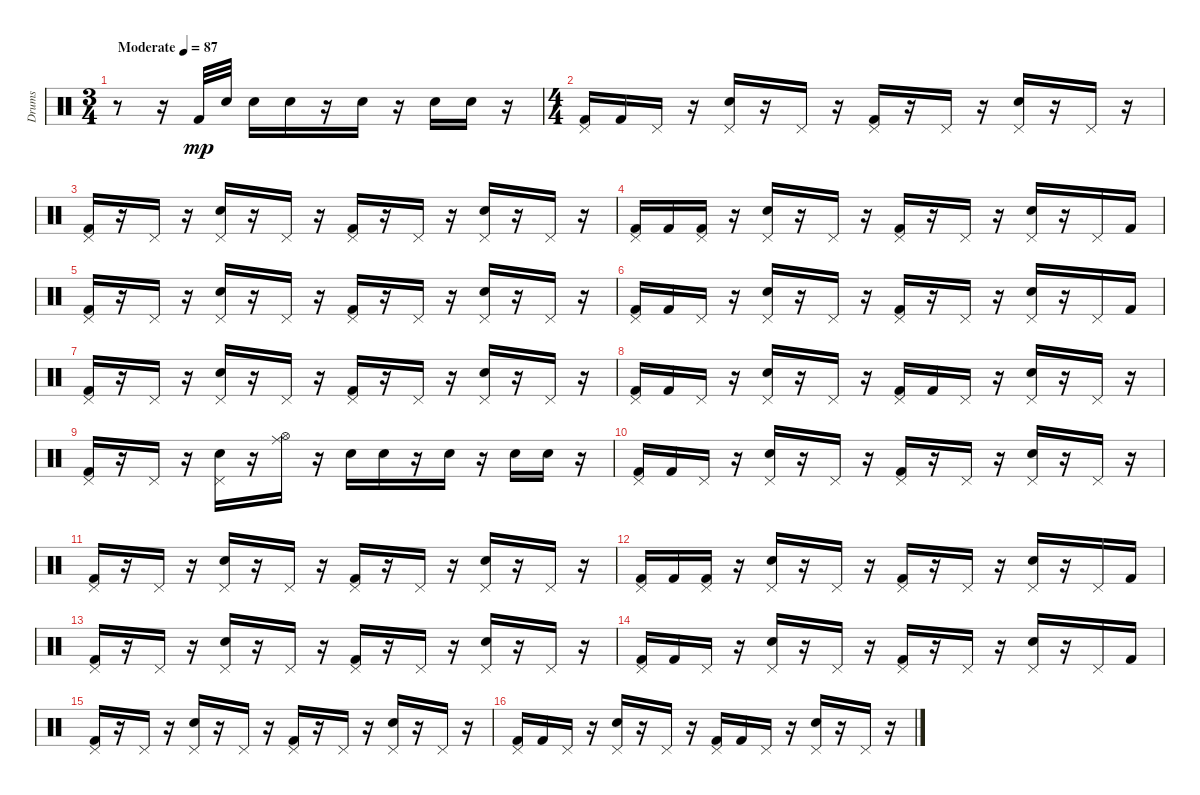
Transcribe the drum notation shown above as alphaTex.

\track ("Drums" "Drums") {instrument percussion}
\staff {score}
\articulation defaults
\ts (3 4)
\tempo (87 "Moderate")
\clef neutral
\ks c
r.8{dy mp} r.16 "Kick (hit) 2".32 "Electric Snare (hit)".32 "Electric Snare (hit)".16 "Electric Snare (hit)".16 r.16 "Electric Snare (hit)".16 r.16 "Electric Snare (hit)".16 "Electric Snare (hit)".16 r.16 |
\ts (4 4)
("Pedal Hi-Hat (hit)" "Kick (hit) 2").16 "Kick (hit) 2".16 "Pedal Hi-Hat (hit)".16 r.16 ("Pedal Hi-Hat (hit)" "Electric Snare (hit)").16 r.16 "Pedal Hi-Hat (hit)".16 r.16 ("Pedal Hi-Hat (hit)" "Kick (hit) 2").16 r.16 "Pedal Hi-Hat (hit)".16 r.16 ("Pedal Hi-Hat (hit)" "Electric Snare (hit)").16 r.16 "Pedal Hi-Hat (hit)".16 r.16 |
("Pedal Hi-Hat (hit)" "Kick (hit) 2").16 r.16 "Pedal Hi-Hat (hit)".16 r.16 ("Pedal Hi-Hat (hit)" "Electric Snare (hit)").16 r.16 "Pedal Hi-Hat (hit)".16 r.16 ("Pedal Hi-Hat (hit)" "Kick (hit) 2").16 r.16 "Pedal Hi-Hat (hit)".16 r.16 ("Pedal Hi-Hat (hit)" "Electric Snare (hit)").16 r.16 "Pedal Hi-Hat (hit)".16 r.16 |
("Pedal Hi-Hat (hit)" "Kick (hit) 2").16 "Kick (hit) 2".16 ("Pedal Hi-Hat (hit)" "Kick (hit) 2").16 r.16 ("Pedal Hi-Hat (hit)" "Electric Snare (hit)").16 r.16 "Pedal Hi-Hat (hit)".16 r.16 ("Pedal Hi-Hat (hit)" "Kick (hit) 2").16 r.16 "Pedal Hi-Hat (hit)".16 r.16 ("Pedal Hi-Hat (hit)" "Electric Snare (hit)").16 r.16 "Pedal Hi-Hat (hit)".16 "Kick (hit) 2".16 |
("Pedal Hi-Hat (hit)" "Kick (hit) 2").16 r.16 "Pedal Hi-Hat (hit)".16 r.16 ("Pedal Hi-Hat (hit)" "Electric Snare (hit)").16 r.16 "Pedal Hi-Hat (hit)".16 r.16 ("Pedal Hi-Hat (hit)" "Kick (hit) 2").16 r.16 "Pedal Hi-Hat (hit)".16 r.16 ("Pedal Hi-Hat (hit)" "Electric Snare (hit)").16 r.16 "Pedal Hi-Hat (hit)".16 r.16 |
("Pedal Hi-Hat (hit)" "Kick (hit) 2").16 "Kick (hit) 2".16 "Pedal Hi-Hat (hit)".16 r.16 ("Pedal Hi-Hat (hit)" "Electric Snare (hit)").16 r.16 "Pedal Hi-Hat (hit)".16 r.16 ("Pedal Hi-Hat (hit)" "Kick (hit) 2").16 r.16 "Pedal Hi-Hat (hit)".16 r.16 ("Pedal Hi-Hat (hit)" "Electric Snare (hit)").16 r.16 "Pedal Hi-Hat (hit)".16 "Kick (hit) 2".16 |
("Pedal Hi-Hat (hit)" "Kick (hit) 2").16 r.16 "Pedal Hi-Hat (hit)".16 r.16 ("Pedal Hi-Hat (hit)" "Electric Snare (hit)").16 r.16 "Pedal Hi-Hat (hit)".16 r.16 ("Pedal Hi-Hat (hit)" "Kick (hit) 2").16 r.16 "Pedal Hi-Hat (hit)".16 r.16 ("Pedal Hi-Hat (hit)" "Electric Snare (hit)").16 r.16 "Pedal Hi-Hat (hit)".16 r.16 |
("Pedal Hi-Hat (hit)" "Kick (hit) 2").16 "Kick (hit) 2".16 "Pedal Hi-Hat (hit)".16 r.16 ("Pedal Hi-Hat (hit)" "Electric Snare (hit)").16 r.16 "Pedal Hi-Hat (hit)".16 r.16 ("Pedal Hi-Hat (hit)" "Kick (hit) 2").16 "Kick (hit) 2".16 "Pedal Hi-Hat (hit)".16 r.16 ("Pedal Hi-Hat (hit)" "Electric Snare (hit)").16 r.16 "Pedal Hi-Hat (hit)".16 r.16 |
("Pedal Hi-Hat (hit)" "Kick (hit) 2").16 r.16 "Pedal Hi-Hat (hit)".16 r.16 ("Pedal Hi-Hat (hit)" "Electric Snare (hit)").16 r.16 ("Hi-Hat (open)" "Ride (middle)").16 r.16 "Electric Snare (hit)".16 "Electric Snare (hit)".16 r.16 "Electric Snare (hit)".16 r.16 "Electric Snare (hit)".16 "Electric Snare (hit)".16 r.16 |
("Pedal Hi-Hat (hit)" "Kick (hit) 2").16 "Kick (hit) 2".16 "Pedal Hi-Hat (hit)".16 r.16 ("Pedal Hi-Hat (hit)" "Electric Snare (hit)").16 r.16 "Pedal Hi-Hat (hit)".16 r.16 ("Pedal Hi-Hat (hit)" "Kick (hit) 2").16 r.16 "Pedal Hi-Hat (hit)".16 r.16 ("Pedal Hi-Hat (hit)" "Electric Snare (hit)").16 r.16 "Pedal Hi-Hat (hit)".16 r.16 |
("Pedal Hi-Hat (hit)" "Kick (hit) 2").16 r.16 "Pedal Hi-Hat (hit)".16 r.16 ("Pedal Hi-Hat (hit)" "Electric Snare (hit)").16 r.16 "Pedal Hi-Hat (hit)".16 r.16 ("Pedal Hi-Hat (hit)" "Kick (hit) 2").16 r.16 "Pedal Hi-Hat (hit)".16 r.16 ("Pedal Hi-Hat (hit)" "Electric Snare (hit)").16 r.16 "Pedal Hi-Hat (hit)".16 r.16 |
("Pedal Hi-Hat (hit)" "Kick (hit) 2").16 "Kick (hit) 2".16 ("Pedal Hi-Hat (hit)" "Kick (hit) 2").16 r.16 ("Pedal Hi-Hat (hit)" "Electric Snare (hit)").16 r.16 "Pedal Hi-Hat (hit)".16 r.16 ("Pedal Hi-Hat (hit)" "Kick (hit) 2").16 r.16 "Pedal Hi-Hat (hit)".16 r.16 ("Pedal Hi-Hat (hit)" "Electric Snare (hit)").16 r.16 "Pedal Hi-Hat (hit)".16 "Kick (hit) 2".16 |
("Pedal Hi-Hat (hit)" "Kick (hit) 2").16 r.16 "Pedal Hi-Hat (hit)".16 r.16 ("Pedal Hi-Hat (hit)" "Electric Snare (hit)").16 r.16 "Pedal Hi-Hat (hit)".16 r.16 ("Pedal Hi-Hat (hit)" "Kick (hit) 2").16 r.16 "Pedal Hi-Hat (hit)".16 r.16 ("Pedal Hi-Hat (hit)" "Electric Snare (hit)").16 r.16 "Pedal Hi-Hat (hit)".16 r.16 |
("Pedal Hi-Hat (hit)" "Kick (hit) 2").16 "Kick (hit) 2".16 "Pedal Hi-Hat (hit)".16 r.16 ("Pedal Hi-Hat (hit)" "Electric Snare (hit)").16 r.16 "Pedal Hi-Hat (hit)".16 r.16 ("Pedal Hi-Hat (hit)" "Kick (hit) 2").16 r.16 "Pedal Hi-Hat (hit)".16 r.16 ("Pedal Hi-Hat (hit)" "Electric Snare (hit)").16 r.16 "Pedal Hi-Hat (hit)".16 "Kick (hit) 2".16 |
("Pedal Hi-Hat (hit)" "Kick (hit) 2").16 r.16 "Pedal Hi-Hat (hit)".16 r.16 ("Pedal Hi-Hat (hit)" "Electric Snare (hit)").16 r.16 "Pedal Hi-Hat (hit)".16 r.16 ("Pedal Hi-Hat (hit)" "Kick (hit) 2").16 r.16 "Pedal Hi-Hat (hit)".16 r.16 ("Pedal Hi-Hat (hit)" "Electric Snare (hit)").16 r.16 "Pedal Hi-Hat (hit)".16 r.16 |
("Pedal Hi-Hat (hit)" "Kick (hit) 2").16 "Kick (hit) 2".16 "Pedal Hi-Hat (hit)".16 r.16 ("Pedal Hi-Hat (hit)" "Electric Snare (hit)").16 r.16 "Pedal Hi-Hat (hit)".16 r.16 ("Pedal Hi-Hat (hit)" "Kick (hit) 2").16 "Kick (hit) 2".16 "Pedal Hi-Hat (hit)".16 r.16 ("Pedal Hi-Hat (hit)" "Electric Snare (hit)").16 r.16 "Pedal Hi-Hat (hit)".16 r.16
